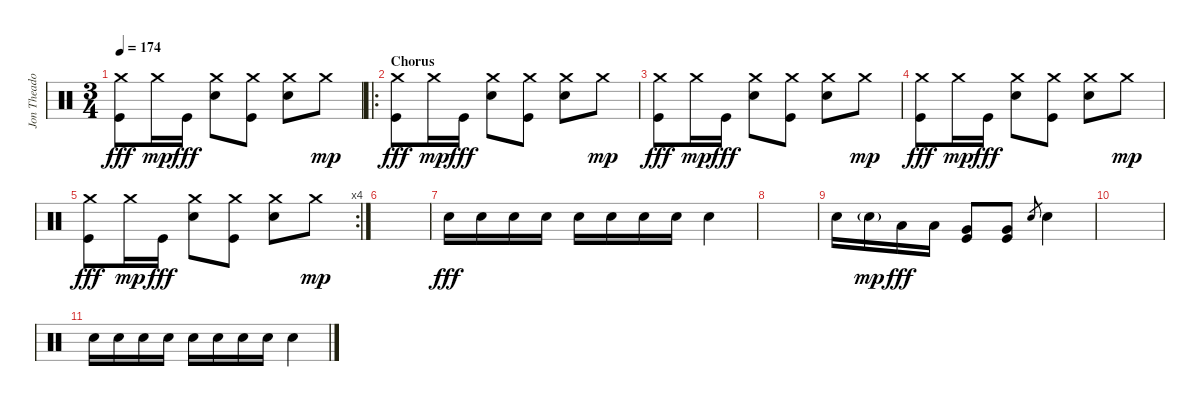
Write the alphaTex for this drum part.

\track ("Jon Theadore - Drums" "Jon Theado") {instrument percussion}
\staff {score}
\articulation defaults
\ts (3 4)
\tempo 174
\clef neutral
\ks c
("Crash medium (hit)" "Kick (hit)").8{dy fff} "Crash medium (hit)".16{dy mp} "Kick (hit)".16{dy fff} ("Crash medium (hit)" "Snare (hit) 2").8 ("Crash medium (hit)" "Kick (hit)").8 ("Crash medium (hit)" "Snare (hit) 2").8 "Crash medium (hit)".8{dy mp} |
\ro
\section ("" "Chorus")
("Crash medium (hit)" "Kick (hit)").8{dy fff} "Crash medium (hit)".16{dy mp} "Kick (hit)".16{dy fff} ("Crash medium (hit)" "Snare (hit) 2").8 ("Crash medium (hit)" "Kick (hit)").8 ("Crash medium (hit)" "Snare (hit) 2").8 "Crash medium (hit)".8{dy mp} |
("Crash medium (hit)" "Kick (hit)").8{dy fff} "Crash medium (hit)".16{dy mp} "Kick (hit)".16{dy fff} ("Crash medium (hit)" "Snare (hit) 2").8 ("Crash medium (hit)" "Kick (hit)").8 ("Crash medium (hit)" "Snare (hit) 2").8 "Crash medium (hit)".8{dy mp} |
("Crash medium (hit)" "Kick (hit)").8{dy fff} "Crash medium (hit)".16{dy mp} "Kick (hit)".16{dy fff} ("Crash medium (hit)" "Snare (hit) 2").8 ("Crash medium (hit)" "Kick (hit)").8 ("Crash medium (hit)" "Snare (hit) 2").8 "Crash medium (hit)".8{dy mp} |
\rc 4
("Crash medium (hit)" "Kick (hit)").8{dy fff} "Crash medium (hit)".16{dy mp} "Kick (hit)".16{dy fff} ("Crash medium (hit)" "Snare (hit) 2").8 ("Crash medium (hit)" "Kick (hit)").8 ("Crash medium (hit)" "Snare (hit) 2").8 "Crash medium (hit)".8{dy mp} |
|
"Snare (hit) 2".16{dy fff} "Snare (hit) 2".16 "Snare (hit) 2".16 "Snare (hit) 2".16 "Snare (hit) 2".16 "Snare (hit) 2".16 "Snare (hit) 2".16 "Snare (hit) 2".16 "Snare (hit) 2".4 |
|
"Snare (hit) 2".16 "Snare (hit) 2"{g}.16{dy mp} "Low Tom (hit)".16{dy fff} "Low Tom (hit)".16 ("Very Low Tom (hit)" "Kick (hit)").8 ("Very Low Tom (hit)" "Kick (hit)").8 "Snare (hit) 2".8{gr} "Snare (hit) 2".4 |
|
"Snare (hit) 2".16 "Snare (hit) 2".16 "Snare (hit) 2".16 "Snare (hit) 2".16 "Snare (hit) 2".16 "Snare (hit) 2".16 "Snare (hit) 2".16 "Snare (hit) 2".16 "Snare (hit) 2".4
